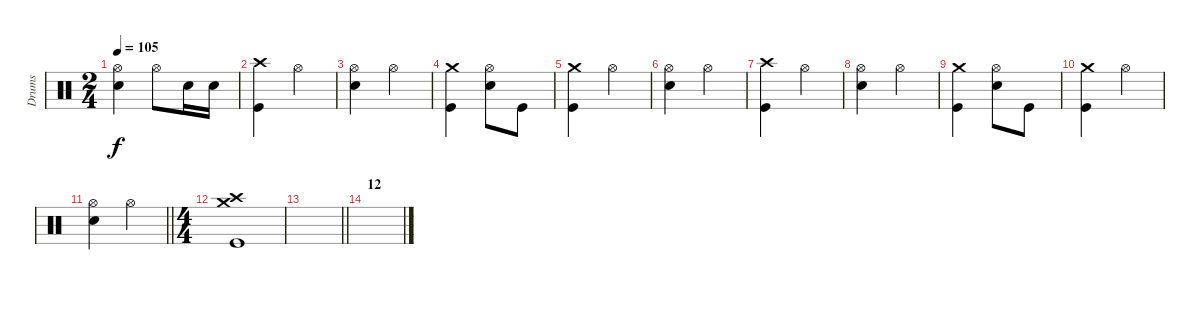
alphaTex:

\track ("Drums" "Drums") {instrument percussion}
\staff {score}
\articulation defaults
\ts (2 4)
\tempo 105
\clef neutral
\ks c
("Hi-Hat (open)" "Electric Snare (hit)").4{dy f} "Hi-Hat (open)".8 "Electric Snare (hit)".16 "Electric Snare (hit)".16 |
("Crash high (hit)" "Kick (hit)").4 "Hi-Hat (open)".4 |
("Hi-Hat (open)" "Electric Snare (hit)").4 "Hi-Hat (open)".4 |
("Crash medium (hit)" "Kick (hit)").4 ("Hi-Hat (open)" "Electric Snare (hit)").8 "Kick (hit)".8 |
("Crash medium (hit)" "Kick (hit)").4 "Hi-Hat (open)".4 |
("Hi-Hat (open)" "Electric Snare (hit)").4 "Hi-Hat (open)".4 |
("Crash high (hit)" "Kick (hit)").4 "Hi-Hat (open)".4 |
("Hi-Hat (open)" "Electric Snare (hit)").4 "Hi-Hat (open)".4 |
("Crash medium (hit)" "Kick (hit)").4 ("Hi-Hat (open)" "Electric Snare (hit)").8 "Kick (hit)".8 |
("Crash medium (hit)" "Kick (hit)").4 "Hi-Hat (open)".4 |
\barLineRight lightlight
("Hi-Hat (open)" "Electric Snare (hit)").4 "Hi-Hat (open)".4 |
\ts (4 4)
\section ("" "")
("Crash medium (hit)" "Crash high (hit)" "Kick (hit)").1 |
\barLineRight lightlight
|
\section ("" "12")
